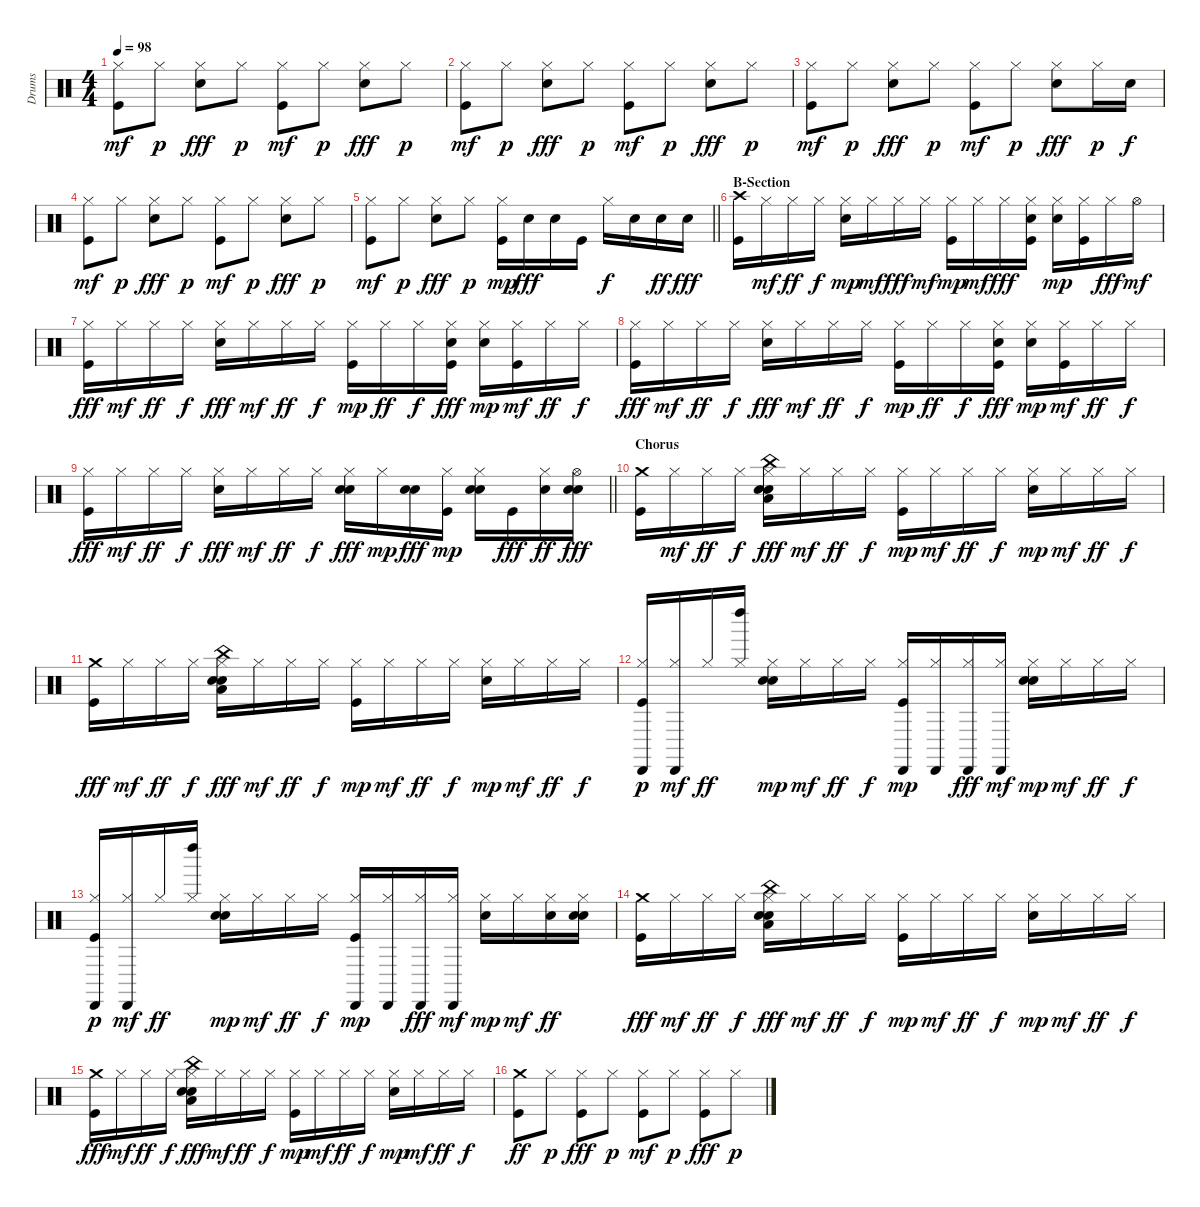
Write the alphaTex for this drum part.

\track ("Drums" "Drums") {instrument percussion}
\staff {score}
\articulation defaults
\ts (4 4)
\tempo 98
\clef neutral
\ks c
("Kick (hit)" "Hi-Hat (closed)").8{dy mf} "Hi-Hat (closed)".8{dy p} ("Snare (hit) 2" "Hi-Hat (closed)").8{dy fff} "Hi-Hat (closed)".8{dy p} ("Kick (hit)" "Hi-Hat (closed)").8{dy mf} "Hi-Hat (closed)".8{dy p} ("Snare (hit) 2" "Hi-Hat (closed)").8{dy fff} "Hi-Hat (closed)".8{dy p} |
("Kick (hit)" "Hi-Hat (closed)").8{dy mf} "Hi-Hat (closed)".8{dy p} ("Snare (hit) 2" "Hi-Hat (closed)").8{dy fff} "Hi-Hat (closed)".8{dy p} ("Kick (hit)" "Hi-Hat (closed)").8{dy mf} "Hi-Hat (closed)".8{dy p} ("Snare (hit) 2" "Hi-Hat (closed)").8{dy fff} "Hi-Hat (closed)".8{dy p} |
("Kick (hit)" "Hi-Hat (closed)").8{dy mf} "Hi-Hat (closed)".8{dy p} ("Snare (hit) 2" "Hi-Hat (closed)").8{dy fff} "Hi-Hat (closed)".8{dy p} ("Kick (hit)" "Hi-Hat (closed)").8{dy mf} "Hi-Hat (closed)".8{dy p} ("Snare (hit) 2" "Hi-Hat (closed)").8{dy fff} "Hi-Hat (closed)".16{dy p} "Snare (hit) 2".16{dy f} |
("Kick (hit)" "Hi-Hat (closed)").8{dy mf} "Hi-Hat (closed)".8{dy p} ("Snare (hit) 2" "Hi-Hat (closed)").8{dy fff} "Hi-Hat (closed)".8{dy p} ("Kick (hit)" "Hi-Hat (closed)").8{dy mf} "Hi-Hat (closed)".8{dy p} ("Snare (hit) 2" "Hi-Hat (closed)").8{dy fff} "Hi-Hat (closed)".8{dy p} |
\barLineRight lightlight
("Kick (hit)" "Hi-Hat (closed)").8{dy mf} "Hi-Hat (closed)".8{dy p} ("Snare (hit) 2" "Hi-Hat (closed)").8{dy fff} "Hi-Hat (closed)".8{dy p} ("Kick (hit)" "Hi-Hat (closed)").16{dy mp} "Snare (hit) 2".16{dy fff} "Snare (hit) 2".16 "Kick (hit)".16 "Hi-Hat (closed)".16{dy f} "Snare (hit) 2".16 "Snare (hit) 2".16{dy ff} "Snare (hit) 2".16{dy fff} |
\section ("" "B-Section")
("Kick (hit)" "Crash high (hit)").16 "Hi-Hat (closed)".16{dy mf} "Hi-Hat (closed)".16{dy ff} "Hi-Hat (closed)".16{dy f} ("Snare (hit) 2" "Hi-Hat (closed)").16{dy mp} "Hi-Hat (closed)".16{dy mf} "Hi-Hat (closed)".16{dy fff} "Hi-Hat (closed)".16{dy mf} ("Kick (hit)" "Hi-Hat (closed)").16{dy mp} "Hi-Hat (closed)".16{dy mf} "Hi-Hat (closed)".16{dy fff} ("Kick (hit)" "Hi-Hat (closed)" "Hand Clap (hit)").16 ("Snare (hit) 2" "Hi-Hat (closed)").16{dy mp} ("Kick (hit)" "Hi-Hat (closed)").16 "Hi-Hat (closed)".16{dy fff} "Hi-Hat (open)".16{dy mf} |
("Hi-Hat (closed)" "Kick (hit)").16{dy fff} "Hi-Hat (closed)".16{dy mf} "Hi-Hat (closed)".16{dy ff} "Hi-Hat (closed)".16{dy f} ("Hi-Hat (closed)" "Snare (hit) 2").16{dy fff} "Hi-Hat (closed)".16{dy mf} "Hi-Hat (closed)".16{dy ff} "Hi-Hat (closed)".16{dy f} ("Kick (hit)" "Hi-Hat (closed)").16{dy mp} "Hi-Hat (closed)".16{dy ff} "Hi-Hat (closed)".16{dy f} ("Kick (hit)" "Hi-Hat (closed)" "Hand Clap (hit)").16{dy fff} ("Snare (hit) 2" "Hi-Hat (closed)").16{dy mp} ("Kick (hit)" "Hi-Hat (closed)").16{dy mf} "Hi-Hat (closed)".16{dy ff} "Hi-Hat (closed)".16{dy f} |
("Hi-Hat (closed)" "Kick (hit)").16{dy fff} "Hi-Hat (closed)".16{dy mf} "Hi-Hat (closed)".16{dy ff} "Hi-Hat (closed)".16{dy f} ("Hi-Hat (closed)" "Snare (hit) 2").16{dy fff} "Hi-Hat (closed)".16{dy mf} "Hi-Hat (closed)".16{dy ff} "Hi-Hat (closed)".16{dy f} ("Kick (hit)" "Hi-Hat (closed)").16{dy mp} "Hi-Hat (closed)".16{dy ff} "Hi-Hat (closed)".16{dy f} ("Kick (hit)" "Hi-Hat (closed)" "Hand Clap (hit)").16{dy fff} ("Snare (hit) 2" "Hi-Hat (closed)").16{dy mp} ("Kick (hit)" "Hi-Hat (closed)").16{dy mf} "Hi-Hat (closed)".16{dy ff} "Hi-Hat (closed)".16{dy f} |
\barLineRight lightlight
("Hi-Hat (closed)" "Kick (hit)").16{dy fff} "Hi-Hat (closed)".16{dy mf} "Hi-Hat (closed)".16{dy ff} "Hi-Hat (closed)".16{dy f} ("Hi-Hat (closed)" "Snare (hit) 2").16{dy fff} "Hi-Hat (closed)".16{dy mf} "Hi-Hat (closed)".16{dy ff} "Hi-Hat (closed)".16{dy f} ("Snare (hit) 2" "Hi-Hat (closed)" "Hand Clap (hit)").16{dy fff} "Hi-Hat (closed)".16{dy mp} ("Snare (hit) 2" "Hand Clap (hit)").16{dy fff} ("Kick (hit)" "Hi-Hat (closed)").16{dy mp} ("Snare (hit) 2" "Hand Clap (hit)" "Hi-Hat (closed)").16 "Kick (hit)".16{dy fff} ("Snare (hit) 2" "Hi-Hat (closed)").16{dy ff} ("Snare (hit) 2" "Hi-Hat (open)" "Hand Clap (hit)").16{dy fff} |
\section ("" "Chorus")
("Crash medium (hit)" "Kick (hit)").16 "Hi-Hat (closed)".16{dy mf} "Hi-Hat (closed)".16{dy ff} "Hi-Hat (closed)".16{dy f} ("Snare (hit) 2" "Hi-Hat (closed)" "Low Floor Tom (hit)" "China (hit)" "Hand Clap (hit)").16{dy fff} "Hi-Hat (closed)".16{dy mf} "Hi-Hat (closed)".16{dy ff} "Hi-Hat (closed)".16{dy f} ("Kick (hit)" "Hi-Hat (closed)").16{dy mp} "Hi-Hat (closed)".16{dy mf} "Hi-Hat (closed)".16{dy ff} "Hi-Hat (closed)".16{dy f} ("Snare (hit) 2" "Hi-Hat (closed)").16{dy mp} "Hi-Hat (closed)".16{dy mf} "Hi-Hat (closed)".16{dy ff} "Hi-Hat (closed)".16{dy f} |
("Crash medium (hit)" "Kick (hit)").16{dy fff} "Hi-Hat (closed)".16{dy mf} "Hi-Hat (closed)".16{dy ff} "Hi-Hat (closed)".16{dy f} ("Snare (hit) 2" "Hi-Hat (closed)" "Low Floor Tom (hit)" "China (hit)" "Hand Clap (hit)").16{dy fff} "Hi-Hat (closed)".16{dy mf} "Hi-Hat (closed)".16{dy ff} "Hi-Hat (closed)".16{dy f} ("Kick (hit)" "Hi-Hat (closed)").16{dy mp} "Hi-Hat (closed)".16{dy mf} "Hi-Hat (closed)".16{dy ff} "Hi-Hat (closed)".16{dy f} ("Snare (hit) 2" "Hi-Hat (closed)").16{dy mp} "Hi-Hat (closed)".16{dy mf} "Hi-Hat (closed)".16{dy ff} "Hi-Hat (closed)".16{dy f} |
("Kick (hit)" "Hi-Hat (closed)" "Cabasa (hit)").16{dy p} ("Hi-Hat (closed)" "Cabasa (hit)").16{dy mf} "Hi-Hat (closed)".16{dy ff} ("Hi-Hat (closed)" "Left Maraca (hit)").16 ("Snare (hit) 2" "Hi-Hat (closed)" "Hand Clap (hit)").16{dy mp} "Hi-Hat (closed)".16{dy mf} "Hi-Hat (closed)".16{dy ff} "Hi-Hat (closed)".16{dy f} ("Kick (hit)" "Hi-Hat (closed)" "Cabasa (hit)").16{dy mp} ("Cabasa (hit)" "Hi-Hat (closed)").16 ("Hi-Hat (closed)" "Cabasa (hit)").16{dy fff} ("Hi-Hat (closed)" "Cabasa (hit)").16{dy mf} ("Snare (hit) 2" "Hi-Hat (closed)" "Hand Clap (hit)").16{dy mp} "Hi-Hat (closed)".16{dy mf} "Hi-Hat (closed)".16{dy ff} "Hi-Hat (closed)".16{dy f} |
("Kick (hit)" "Hi-Hat (closed)" "Cabasa (hit)").16{dy p} ("Hi-Hat (closed)" "Cabasa (hit)").16{dy mf} "Hi-Hat (closed)".16{dy ff} ("Hi-Hat (closed)" "Left Maraca (hit)").16 ("Snare (hit) 2" "Hi-Hat (closed)" "Hand Clap (hit)").16{dy mp} "Hi-Hat (closed)".16{dy mf} "Hi-Hat (closed)".16{dy ff} "Hi-Hat (closed)".16{dy f} ("Kick (hit)" "Hi-Hat (closed)" "Cabasa (hit)").16{dy mp} ("Cabasa (hit)" "Hi-Hat (closed)").16 ("Hi-Hat (closed)" "Cabasa (hit)").16{dy fff} ("Hi-Hat (closed)" "Cabasa (hit)").16{dy mf} ("Snare (hit) 2" "Hi-Hat (closed)").16{dy mp} "Hi-Hat (closed)".16{dy mf} ("Snare (hit) 2" "Hi-Hat (closed)").16{dy ff} ("Snare (hit) 2" "Hi-Hat (closed)" "Hand Clap (hit)").16 |
("Crash medium (hit)" "Kick (hit)").16{dy fff} "Hi-Hat (closed)".16{dy mf} "Hi-Hat (closed)".16{dy ff} "Hi-Hat (closed)".16{dy f} ("Snare (hit) 2" "Hi-Hat (closed)" "Low Floor Tom (hit)" "China (hit)" "Hand Clap (hit)").16{dy fff} "Hi-Hat (closed)".16{dy mf} "Hi-Hat (closed)".16{dy ff} "Hi-Hat (closed)".16{dy f} ("Kick (hit)" "Hi-Hat (closed)").16{dy mp} "Hi-Hat (closed)".16{dy mf} "Hi-Hat (closed)".16{dy ff} "Hi-Hat (closed)".16{dy f} ("Snare (hit) 2" "Hi-Hat (closed)").16{dy mp} "Hi-Hat (closed)".16{dy mf} "Hi-Hat (closed)".16{dy ff} "Hi-Hat (closed)".16{dy f} |
("Crash medium (hit)" "Kick (hit)").16{dy fff} "Hi-Hat (closed)".16{dy mf} "Hi-Hat (closed)".16{dy ff} "Hi-Hat (closed)".16{dy f} ("Snare (hit) 2" "Hi-Hat (closed)" "Low Floor Tom (hit)" "China (hit)" "Hand Clap (hit)").16{dy fff} "Hi-Hat (closed)".16{dy mf} "Hi-Hat (closed)".16{dy ff} "Hi-Hat (closed)".16{dy f} ("Kick (hit)" "Hi-Hat (closed)").16{dy mp} "Hi-Hat (closed)".16{dy mf} "Hi-Hat (closed)".16{dy ff} "Hi-Hat (closed)".16{dy f} ("Snare (hit) 2" "Hi-Hat (closed)").16{dy mp} "Hi-Hat (closed)".16{dy mf} "Hi-Hat (closed)".16{dy ff} "Hi-Hat (closed)".16{dy f} |
("Kick (hit)" "Crash medium (hit)").8{dy ff} "Hi-Hat (closed)".8{dy p} ("Kick (hit)" "Hi-Hat (closed)").8{dy fff} "Hi-Hat (closed)".8{dy p} ("Kick (hit)" "Hi-Hat (closed)").8{dy mf} "Hi-Hat (closed)".8{dy p} ("Kick (hit)" "Hi-Hat (closed)").8{dy fff} "Hi-Hat (closed)".8{dy p}
